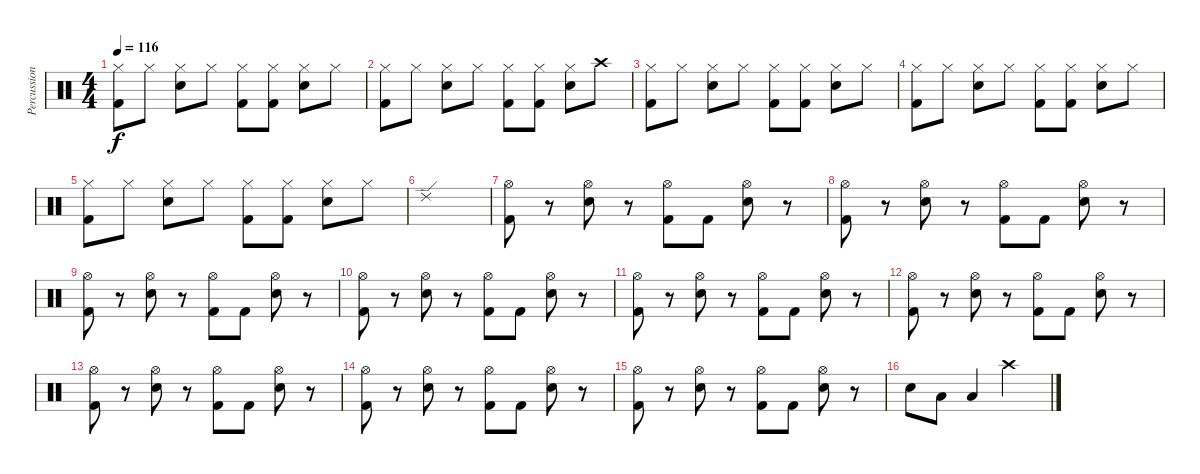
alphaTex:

\track ("Percussion" "Percussion") {instrument percussion}
\staff {score}
\articulation defaults
\ts (4 4)
\tempo 116
\clef neutral
\ks c
("Hi-Hat (closed)" "Kick (hit) 2").8{dy f} "Hi-Hat (closed)".8 ("Hi-Hat (closed)" "Snare (hit) 2").8 "Hi-Hat (closed)".8 ("Hi-Hat (closed)" "Kick (hit) 2").8 ("Hi-Hat (closed)" "Kick (hit) 2").8 ("Hi-Hat (closed)" "Snare (hit) 2").8 "Hi-Hat (closed)".8 |
("Hi-Hat (closed)" "Kick (hit) 2").8 "Hi-Hat (closed)".8 ("Hi-Hat (closed)" "Snare (hit) 2").8 "Hi-Hat (closed)".8 ("Hi-Hat (closed)" "Kick (hit) 2").8 ("Hi-Hat (closed)" "Kick (hit) 2").8 ("Hi-Hat (closed)" "Snare (hit) 2").8 "Crash high (hit)".8 |
("Hi-Hat (closed)" "Kick (hit) 2").8 "Hi-Hat (closed)".8 ("Hi-Hat (closed)" "Snare (hit) 2").8 "Hi-Hat (closed)".8 ("Hi-Hat (closed)" "Kick (hit) 2").8 ("Hi-Hat (closed)" "Kick (hit) 2").8 ("Hi-Hat (closed)" "Snare (hit) 2").8 "Hi-Hat (closed)".8 |
("Hi-Hat (closed)" "Kick (hit) 2").8 "Hi-Hat (closed)".8 ("Hi-Hat (closed)" "Snare (hit) 2").8 "Hi-Hat (closed)".8 ("Hi-Hat (closed)" "Kick (hit) 2").8 ("Hi-Hat (closed)" "Kick (hit) 2").8 ("Hi-Hat (closed)" "Snare (hit) 2").8 "Hi-Hat (closed)".8 |
("Hi-Hat (closed)" "Kick (hit) 2").8 "Hi-Hat (closed)".8 ("Hi-Hat (closed)" "Snare (hit) 2").8 "Hi-Hat (closed)".8 ("Hi-Hat (closed)" "Kick (hit) 2").8 ("Hi-Hat (closed)" "Kick (hit) 2").8 ("Hi-Hat (closed)" "Snare (hit) 2").8 "Hi-Hat (closed)".8 |
"Ride (edge) 2".1 |
("Hi-Hat (open)" "Kick (hit) 2").8 r.8 ("Hi-Hat (open)" "Snare (hit) 2").8 r.8 ("Hi-Hat (open)" "Kick (hit) 2").8 "Kick (hit) 2".8 ("Hi-Hat (open)" "Snare (hit) 2").8 r.8 |
("Hi-Hat (open)" "Kick (hit) 2").8 r.8 ("Hi-Hat (open)" "Snare (hit) 2").8 r.8 ("Hi-Hat (open)" "Kick (hit) 2").8 "Kick (hit) 2".8 ("Hi-Hat (open)" "Snare (hit) 2").8 r.8 |
("Hi-Hat (open)" "Kick (hit) 2").8 r.8 ("Hi-Hat (open)" "Snare (hit) 2").8 r.8 ("Hi-Hat (open)" "Kick (hit) 2").8 "Kick (hit) 2".8 ("Hi-Hat (open)" "Snare (hit) 2").8 r.8 |
("Hi-Hat (open)" "Kick (hit) 2").8 r.8 ("Hi-Hat (open)" "Snare (hit) 2").8 r.8 ("Hi-Hat (open)" "Kick (hit) 2").8 "Kick (hit) 2".8 ("Hi-Hat (open)" "Snare (hit) 2").8 r.8 |
("Hi-Hat (open)" "Kick (hit) 2").8 r.8 ("Hi-Hat (open)" "Snare (hit) 2").8 r.8 ("Hi-Hat (open)" "Kick (hit) 2").8 "Kick (hit) 2".8 ("Hi-Hat (open)" "Snare (hit) 2").8 r.8 |
("Hi-Hat (open)" "Kick (hit) 2").8 r.8 ("Hi-Hat (open)" "Snare (hit) 2").8 r.8 ("Hi-Hat (open)" "Kick (hit) 2").8 "Kick (hit) 2".8 ("Hi-Hat (open)" "Snare (hit) 2").8 r.8 |
("Hi-Hat (open)" "Kick (hit) 2").8 r.8 ("Hi-Hat (open)" "Snare (hit) 2").8 r.8 ("Hi-Hat (open)" "Kick (hit) 2").8 "Kick (hit) 2".8 ("Hi-Hat (open)" "Snare (hit) 2").8 r.8 |
("Hi-Hat (open)" "Kick (hit) 2").8 r.8 ("Hi-Hat (open)" "Snare (hit) 2").8 r.8 ("Hi-Hat (open)" "Kick (hit) 2").8 "Kick (hit) 2".8 ("Hi-Hat (open)" "Snare (hit) 2").8 r.8 |
("Hi-Hat (open)" "Kick (hit) 2").8 r.8 ("Hi-Hat (open)" "Snare (hit) 2").8 r.8 ("Hi-Hat (open)" "Kick (hit) 2").8 "Kick (hit) 2".8 ("Hi-Hat (open)" "Snare (hit) 2").8 r.8 |
"Snare (hit) 2".8 "Low Tom (hit)".8 "Low Floor Tom (hit)".4 "Crash high (hit)".2
